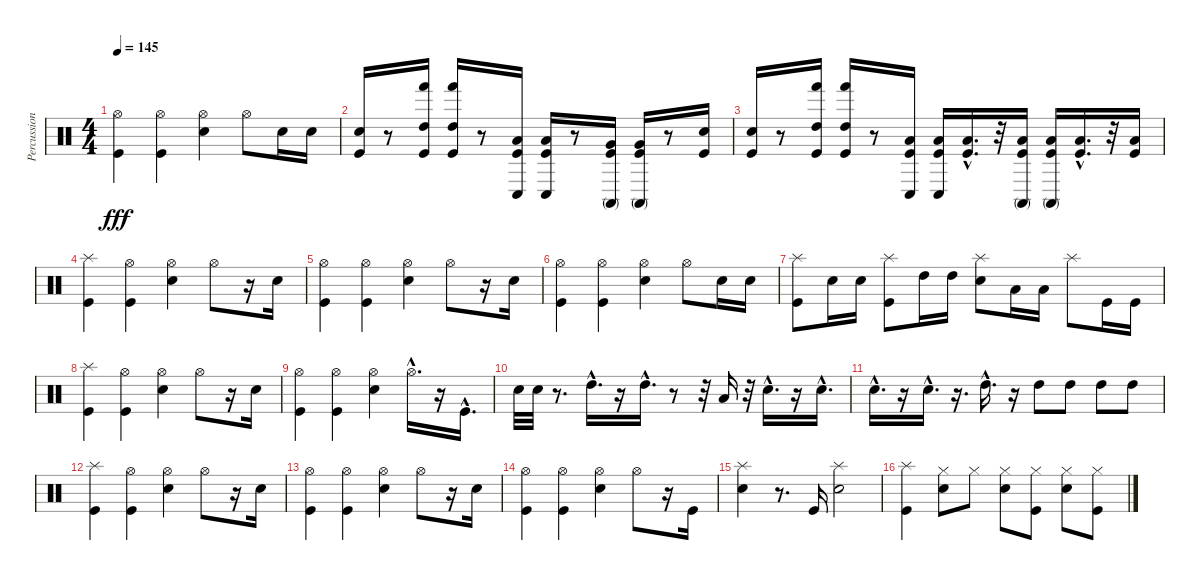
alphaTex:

\track ("Percussion" "Percussion") {instrument percussion}
\staff {score}
\articulation defaults
\ts (4 4)
\tempo 145
\clef neutral
\ks c
("Hi-Hat (open)" "Kick (hit)").4{dy fff} ("Hi-Hat (open)" "Kick (hit)").4 ("Hi-Hat (open)" "Snare (hit) 2").4 "Hi-Hat (open)".8 "Snare (hit) 2".16 "Snare (hit) 2".16 |
("Electric Snare (hit)" "Kick (hit)").16 r.8 ("Hand (hit)" "High Tom (hit)" "Kick (hit)").16 ("Hand (hit)" "High Tom (hit)" "Kick (hit)").16 r.8 ("Conga low (hit)" "Low Tom (hit)" "Kick (hit)").16 ("Conga low (hit)" "Low Tom (hit)" "Kick (hit)").16 r.8 ("Conga high (mute)" "Very Low Tom (hit)" "Kick (hit)").16 ("Conga high (mute)" "Very Low Tom (hit)" "Kick (hit)").16 r.8 ("Snare (hit) 2" "Kick (hit)").16 |
("Snare (hit) 2" "Kick (hit)").16 r.8 ("Hand (hit)" "High Tom (hit)" "Kick (hit)").16 ("Hand (hit)" "High Tom (hit)" "Kick (hit)").16 r.8 ("Conga low (hit)" "Low Tom (hit)" "Kick (hit)").16 ("Conga low (hit)" "Low Tom (hit)" "Kick (hit)").16 ("Low Tom (hit)"{hac} "Kick (hit)"{hac}).16{d} r.32 ("Conga high (mute)" "Low Tom (hit)" "Kick (hit)").16 ("Conga high (mute)" "Low Tom (hit)" "Kick (hit)").16 ("Low Tom (hit)"{hac} "Kick (hit)"{hac}).16{d} r.32 ("Low Tom (hit)" "Kick (hit)").16 |
("Splash (hit)" "Kick (hit)").4 ("Hi-Hat (open)" "Kick (hit)").4 ("Hi-Hat (open)" "Snare (hit) 2").4 "Hi-Hat (open)".8 r.16 "Snare (hit) 2".16 |
("Hi-Hat (open)" "Kick (hit)").4 ("Hi-Hat (open)" "Kick (hit)").4 ("Hi-Hat (open)" "Snare (hit) 2").4 "Hi-Hat (open)".8 r.16 "Snare (hit) 2".16 |
("Hi-Hat (open)" "Kick (hit)").4 ("Hi-Hat (open)" "Kick (hit)").4 ("Hi-Hat (open)" "Snare (hit) 2").4 "Hi-Hat (open)".8 "Snare (hit) 2".16 "Snare (hit) 2".16 |
("Splash (hit)" "Kick (hit)").8 "Snare (hit) 2".16 "Snare (hit) 2".16 ("Splash (hit)" "Kick (hit)").8 "High Tom (hit)".16 "High Tom (hit)".16 ("Splash (hit)" "Snare (hit) 2").8 "Low Tom (hit)".16 "Low Tom (hit)".16 "Splash (hit)".8 "Kick (hit)".16 "Kick (hit)".16 |
("Splash (hit)" "Kick (hit)").4 ("Hi-Hat (open)" "Kick (hit)").4 ("Hi-Hat (open)" "Snare (hit) 2").4 "Hi-Hat (open)".8 r.16 "Snare (hit) 2".16 |
("Hi-Hat (open)" "Kick (hit)").4 ("Hi-Hat (open)" "Kick (hit)").4 ("Hi-Hat (open)" "Snare (hit) 2").4 "Hi-Hat (open)"{hac}.16{d} r.16 "Kick (hit)"{hac}.16{d} |
"Snare (hit) 2".32 "Snare (hit) 2".32 r.8{d} "High Tom (hit)"{hac}.16{d} r.16 "High Tom (hit)"{hac}.16{d} r.8 r.32 "Low Tom (hit)".16 r.32 "Snare (hit) 2"{hac}.16{d} r.16 "Snare (hit) 2"{hac}.16{d} |
"Snare (hit) 2"{hac}.16{d} r.16 "Snare (hit) 2"{hac}.16{d} r.16{d} "High Tom (hit)"{hac}.16{d} r.16 "High Tom (hit)".8 "High Tom (hit)".8 "High Tom (hit)".8 "High Tom (hit)".8 |
("Splash (hit)" "Kick (hit)").4 ("Hi-Hat (open)" "Kick (hit)").4 ("Hi-Hat (open)" "Snare (hit) 2").4 "Hi-Hat (open)".8 r.16 "Snare (hit) 2".16 |
("Hi-Hat (open)" "Kick (hit)").4 ("Hi-Hat (open)" "Kick (hit)").4 ("Hi-Hat (open)" "Snare (hit) 2").4 "Hi-Hat (open)".8 r.16 "Snare (hit) 2".16 |
("Hi-Hat (open)" "Kick (hit)").4 ("Hi-Hat (open)" "Kick (hit)").4 ("Hi-Hat (open)" "Snare (hit) 2").4 "Hi-Hat (open)".8 r.16 "Kick (hit)".16 |
("Splash (hit)" "Snare (hit) 2").4 r.8{d} "Kick (hit)".16 ("Splash (hit)" "Snare (hit) 2").2 |
("Splash (hit)" "Kick (hit)").4 ("Hi-Hat (closed)" "Snare (hit) 2").8 "Hi-Hat (closed)".8 ("Hi-Hat (closed)" "Snare (hit) 2").8 ("Hi-Hat (closed)" "Kick (hit)").8 ("Hi-Hat (closed)" "Snare (hit) 2").8 ("Hi-Hat (closed)" "Kick (hit)").8
